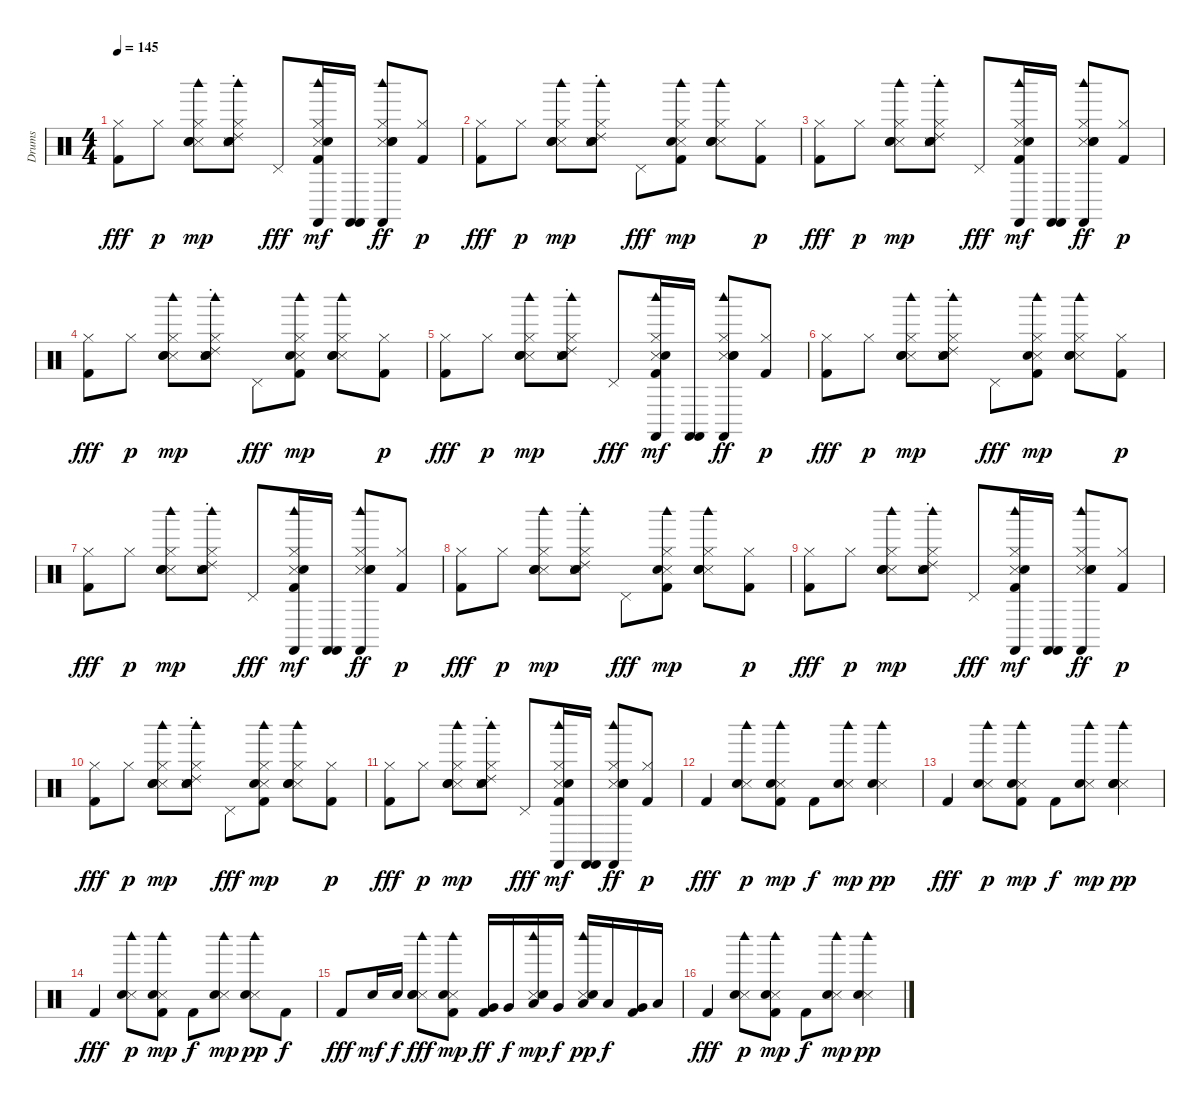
\track ("Drums" "Drums") {instrument percussion}
\staff {score}
\articulation defaults
\ts (4 4)
\tempo 145
\clef neutral
\ks c
("Kick (hit) 2" "Hi-Hat (closed)").8{dy fff} "Hi-Hat (closed)".8{dy p} ("Snare (side stick) 3" "Hand Clap (hit)" "Electric Snare (hit)" "Hi-Hat (closed)" "Woodblock high (hit)").8{dy mp} ("Ride (choke) 2" "Snare (side stick) 3" "Hand Clap (hit)" "Electric Snare (hit)" "Hi-Hat (closed)" "Woodblock high (hit)").8 "Pedal Hi-Hat (hit)".8{dy fff} ("Kick (hit) 2" "Snare (side stick) 3" "Hand Clap (hit)" "Hi-Hat (closed)" "Woodblock high (hit)" "Castanets (hit)").16{dy mf} ("Castanets (hit)" "Castanets (hit)").16 ("Snare (side stick) 3" "Hand Clap (hit)" "Electric Snare (hit)" "Hi-Hat (closed)" "Woodblock high (hit)" "Castanets (hit)").8{dy ff} ("Kick (hit) 2" "Hi-Hat (closed)").8{dy p} |
("Kick (hit) 2" "Hi-Hat (closed)").8{dy fff} "Hi-Hat (closed)".8{dy p} ("Snare (side stick) 3" "Hand Clap (hit)" "Electric Snare (hit)" "Hi-Hat (closed)" "Woodblock high (hit)").8{dy mp} ("Ride (choke) 2" "Snare (side stick) 3" "Hand Clap (hit)" "Electric Snare (hit)" "Hi-Hat (closed)" "Woodblock high (hit)").8 "Pedal Hi-Hat (hit)".8{dy fff} ("Kick (hit) 2" "Snare (side stick) 3" "Hand Clap (hit)" "Hi-Hat (closed)" "Woodblock high (hit)").8{dy mp} ("Snare (side stick) 3" "Hand Clap (hit)" "Electric Snare (hit)" "Hi-Hat (closed)" "Woodblock high (hit)").8 ("Kick (hit) 2" "Hi-Hat (closed)").8{dy p} |
("Kick (hit) 2" "Hi-Hat (closed)").8{dy fff} "Hi-Hat (closed)".8{dy p} ("Snare (side stick) 3" "Hand Clap (hit)" "Electric Snare (hit)" "Hi-Hat (closed)" "Woodblock high (hit)").8{dy mp} ("Ride (choke) 2" "Snare (side stick) 3" "Hand Clap (hit)" "Electric Snare (hit)" "Hi-Hat (closed)" "Woodblock high (hit)").8 "Pedal Hi-Hat (hit)".8{dy fff} ("Kick (hit) 2" "Snare (side stick) 3" "Hand Clap (hit)" "Hi-Hat (closed)" "Woodblock high (hit)" "Castanets (hit)").16{dy mf} ("Castanets (hit)" "Castanets (hit)").16 ("Snare (side stick) 3" "Hand Clap (hit)" "Electric Snare (hit)" "Hi-Hat (closed)" "Woodblock high (hit)" "Castanets (hit)").8{dy ff} ("Kick (hit) 2" "Hi-Hat (closed)").8{dy p} |
("Kick (hit) 2" "Hi-Hat (closed)").8{dy fff} "Hi-Hat (closed)".8{dy p} ("Snare (side stick) 3" "Hand Clap (hit)" "Electric Snare (hit)" "Hi-Hat (closed)" "Woodblock high (hit)").8{dy mp} ("Ride (choke) 2" "Snare (side stick) 3" "Hand Clap (hit)" "Electric Snare (hit)" "Hi-Hat (closed)" "Woodblock high (hit)").8 "Pedal Hi-Hat (hit)".8{dy fff} ("Kick (hit) 2" "Snare (side stick) 3" "Hand Clap (hit)" "Hi-Hat (closed)" "Woodblock high (hit)").8{dy mp} ("Snare (side stick) 3" "Hand Clap (hit)" "Electric Snare (hit)" "Hi-Hat (closed)" "Woodblock high (hit)").8 ("Kick (hit) 2" "Hi-Hat (closed)").8{dy p} |
("Kick (hit) 2" "Hi-Hat (closed)").8{dy fff} "Hi-Hat (closed)".8{dy p} ("Snare (side stick) 3" "Hand Clap (hit)" "Electric Snare (hit)" "Hi-Hat (closed)" "Woodblock high (hit)").8{dy mp} ("Ride (choke) 2" "Snare (side stick) 3" "Hand Clap (hit)" "Electric Snare (hit)" "Hi-Hat (closed)" "Woodblock high (hit)").8 "Pedal Hi-Hat (hit)".8{dy fff} ("Kick (hit) 2" "Snare (side stick) 3" "Hand Clap (hit)" "Hi-Hat (closed)" "Woodblock high (hit)" "Castanets (hit)").16{dy mf} ("Castanets (hit)" "Castanets (hit)").16 ("Snare (side stick) 3" "Hand Clap (hit)" "Electric Snare (hit)" "Hi-Hat (closed)" "Woodblock high (hit)" "Castanets (hit)").8{dy ff} ("Kick (hit) 2" "Hi-Hat (closed)").8{dy p} |
("Kick (hit) 2" "Hi-Hat (closed)").8{dy fff} "Hi-Hat (closed)".8{dy p} ("Snare (side stick) 3" "Hand Clap (hit)" "Electric Snare (hit)" "Hi-Hat (closed)" "Woodblock high (hit)").8{dy mp} ("Ride (choke) 2" "Snare (side stick) 3" "Hand Clap (hit)" "Electric Snare (hit)" "Hi-Hat (closed)" "Woodblock high (hit)").8 "Pedal Hi-Hat (hit)".8{dy fff} ("Kick (hit) 2" "Snare (side stick) 3" "Hand Clap (hit)" "Hi-Hat (closed)" "Woodblock high (hit)").8{dy mp} ("Snare (side stick) 3" "Hand Clap (hit)" "Electric Snare (hit)" "Hi-Hat (closed)" "Woodblock high (hit)").8 ("Kick (hit) 2" "Hi-Hat (closed)").8{dy p} |
("Kick (hit) 2" "Hi-Hat (closed)").8{dy fff} "Hi-Hat (closed)".8{dy p} ("Snare (side stick) 3" "Hand Clap (hit)" "Electric Snare (hit)" "Hi-Hat (closed)" "Woodblock high (hit)").8{dy mp} ("Ride (choke) 2" "Snare (side stick) 3" "Hand Clap (hit)" "Electric Snare (hit)" "Hi-Hat (closed)" "Woodblock high (hit)").8 "Pedal Hi-Hat (hit)".8{dy fff} ("Kick (hit) 2" "Snare (side stick) 3" "Hand Clap (hit)" "Hi-Hat (closed)" "Woodblock high (hit)" "Castanets (hit)").16{dy mf} ("Castanets (hit)" "Castanets (hit)").16 ("Snare (side stick) 3" "Hand Clap (hit)" "Electric Snare (hit)" "Hi-Hat (closed)" "Woodblock high (hit)" "Castanets (hit)").8{dy ff} ("Kick (hit) 2" "Hi-Hat (closed)").8{dy p} |
("Kick (hit) 2" "Hi-Hat (closed)").8{dy fff} "Hi-Hat (closed)".8{dy p} ("Snare (side stick) 3" "Hand Clap (hit)" "Electric Snare (hit)" "Hi-Hat (closed)" "Woodblock high (hit)").8{dy mp} ("Ride (choke) 2" "Snare (side stick) 3" "Hand Clap (hit)" "Electric Snare (hit)" "Hi-Hat (closed)" "Woodblock high (hit)").8 "Pedal Hi-Hat (hit)".8{dy fff} ("Kick (hit) 2" "Snare (side stick) 3" "Hand Clap (hit)" "Hi-Hat (closed)" "Woodblock high (hit)").8{dy mp} ("Snare (side stick) 3" "Hand Clap (hit)" "Electric Snare (hit)" "Hi-Hat (closed)" "Woodblock high (hit)").8 ("Kick (hit) 2" "Hi-Hat (closed)").8{dy p} |
("Kick (hit) 2" "Hi-Hat (closed)").8{dy fff} "Hi-Hat (closed)".8{dy p} ("Snare (side stick) 3" "Hand Clap (hit)" "Electric Snare (hit)" "Hi-Hat (closed)" "Woodblock high (hit)").8{dy mp} ("Ride (choke) 2" "Snare (side stick) 3" "Hand Clap (hit)" "Electric Snare (hit)" "Hi-Hat (closed)" "Woodblock high (hit)").8 "Pedal Hi-Hat (hit)".8{dy fff} ("Kick (hit) 2" "Snare (side stick) 3" "Hand Clap (hit)" "Hi-Hat (closed)" "Woodblock high (hit)" "Castanets (hit)").16{dy mf} ("Castanets (hit)" "Castanets (hit)").16 ("Snare (side stick) 3" "Hand Clap (hit)" "Electric Snare (hit)" "Hi-Hat (closed)" "Woodblock high (hit)" "Castanets (hit)").8{dy ff} ("Kick (hit) 2" "Hi-Hat (closed)").8{dy p} |
("Kick (hit) 2" "Hi-Hat (closed)").8{dy fff} "Hi-Hat (closed)".8{dy p} ("Snare (side stick) 3" "Hand Clap (hit)" "Electric Snare (hit)" "Hi-Hat (closed)" "Woodblock high (hit)").8{dy mp} ("Ride (choke) 2" "Snare (side stick) 3" "Hand Clap (hit)" "Electric Snare (hit)" "Hi-Hat (closed)" "Woodblock high (hit)").8 "Pedal Hi-Hat (hit)".8{dy fff} ("Kick (hit) 2" "Snare (side stick) 3" "Hand Clap (hit)" "Hi-Hat (closed)" "Woodblock high (hit)").8{dy mp} ("Snare (side stick) 3" "Hand Clap (hit)" "Electric Snare (hit)" "Hi-Hat (closed)" "Woodblock high (hit)").8 ("Kick (hit) 2" "Hi-Hat (closed)").8{dy p} |
("Kick (hit) 2" "Hi-Hat (closed)").8{dy fff} "Hi-Hat (closed)".8{dy p} ("Snare (side stick) 3" "Hand Clap (hit)" "Electric Snare (hit)" "Hi-Hat (closed)" "Woodblock high (hit)").8{dy mp} ("Ride (choke) 2" "Snare (side stick) 3" "Hand Clap (hit)" "Electric Snare (hit)" "Hi-Hat (closed)" "Woodblock high (hit)").8 "Pedal Hi-Hat (hit)".8{dy fff} ("Kick (hit) 2" "Snare (side stick) 3" "Hand Clap (hit)" "Hi-Hat (closed)" "Woodblock high (hit)" "Castanets (hit)").16{dy mf} ("Castanets (hit)" "Castanets (hit)").16 ("Snare (side stick) 3" "Hand Clap (hit)" "Electric Snare (hit)" "Hi-Hat (closed)" "Woodblock high (hit)" "Castanets (hit)").8{dy ff} ("Kick (hit) 2" "Hi-Hat (closed)").8{dy p} |
"Kick (hit) 2".4{dy fff} ("Snare (side stick) 3" "Hand Clap (hit)" "Woodblock high (hit)").8{dy p} ("Kick (hit) 2" "Snare (side stick) 3" "Hand Clap (hit)" "Woodblock high (hit)").8{dy mp} "Kick (hit) 2".8{dy f} ("Snare (side stick) 3" "Hand Clap (hit)" "Woodblock high (hit)").8{dy mp} ("Snare (side stick) 3" "Hand Clap (hit)" "Woodblock high (hit)").4{dy pp} |
"Kick (hit) 2".4{dy fff} ("Snare (side stick) 3" "Hand Clap (hit)" "Woodblock high (hit)").8{dy p} ("Kick (hit) 2" "Snare (side stick) 3" "Hand Clap (hit)" "Woodblock high (hit)").8{dy mp} "Kick (hit) 2".8{dy f} ("Snare (side stick) 3" "Hand Clap (hit)" "Woodblock high (hit)").8{dy mp} ("Snare (side stick) 3" "Hand Clap (hit)" "Electric Snare (hit)" "Woodblock high (hit)").4{dy pp} |
"Kick (hit) 2".4{dy fff} ("Snare (side stick) 3" "Hand Clap (hit)" "Woodblock high (hit)").8{dy p} ("Kick (hit) 2" "Snare (side stick) 3" "Hand Clap (hit)" "Woodblock high (hit)").8{dy mp} "Kick (hit) 2".8{dy f} ("Snare (side stick) 3" "Hand Clap (hit)" "Woodblock high (hit)").8{dy mp} ("Snare (side stick) 3" "Hand Clap (hit)" "Woodblock high (hit)").8{dy pp} "Kick (hit) 2".8{dy f} |
"Kick (hit) 2".8{dy fff} "Electric Snare (hit)".16{dy mf} "Electric Snare (hit)".16{dy f} ("Snare (side stick) 3" "Hand Clap (hit)" "Electric Snare (hit)" "Woodblock high (hit)").8{dy fff} ("Kick (hit) 2" "Snare (side stick) 3" "Hand Clap (hit)" "Woodblock high (hit)").8{dy mp} ("Kick (hit) 2" "Very Low Tom (hit)").16{dy ff} "Very Low Tom (hit)".16{dy f} ("Snare (side stick) 3" "Hand Clap (hit)" "Low Floor Tom (hit)" "Woodblock high (hit)").16{dy mp} "Very Low Tom (hit)".16{dy f} ("Snare (side stick) 3" "Hand Clap (hit)" "Low Tom (hit)" "Woodblock high (hit)").16{dy pp} "Low Tom (hit)".16{dy f} ("Kick (hit) 2" "Very Low Tom (hit)").16 "Low Floor Tom (hit)".16 |
"Kick (hit) 2".4{dy fff} ("Snare (side stick) 3" "Hand Clap (hit)" "Woodblock high (hit)").8{dy p} ("Kick (hit) 2" "Snare (side stick) 3" "Hand Clap (hit)" "Woodblock high (hit)").8{dy mp} "Kick (hit) 2".8{dy f} ("Snare (side stick) 3" "Hand Clap (hit)" "Woodblock high (hit)").8{dy mp} ("Snare (side stick) 3" "Hand Clap (hit)" "Woodblock high (hit)").4{dy pp}
